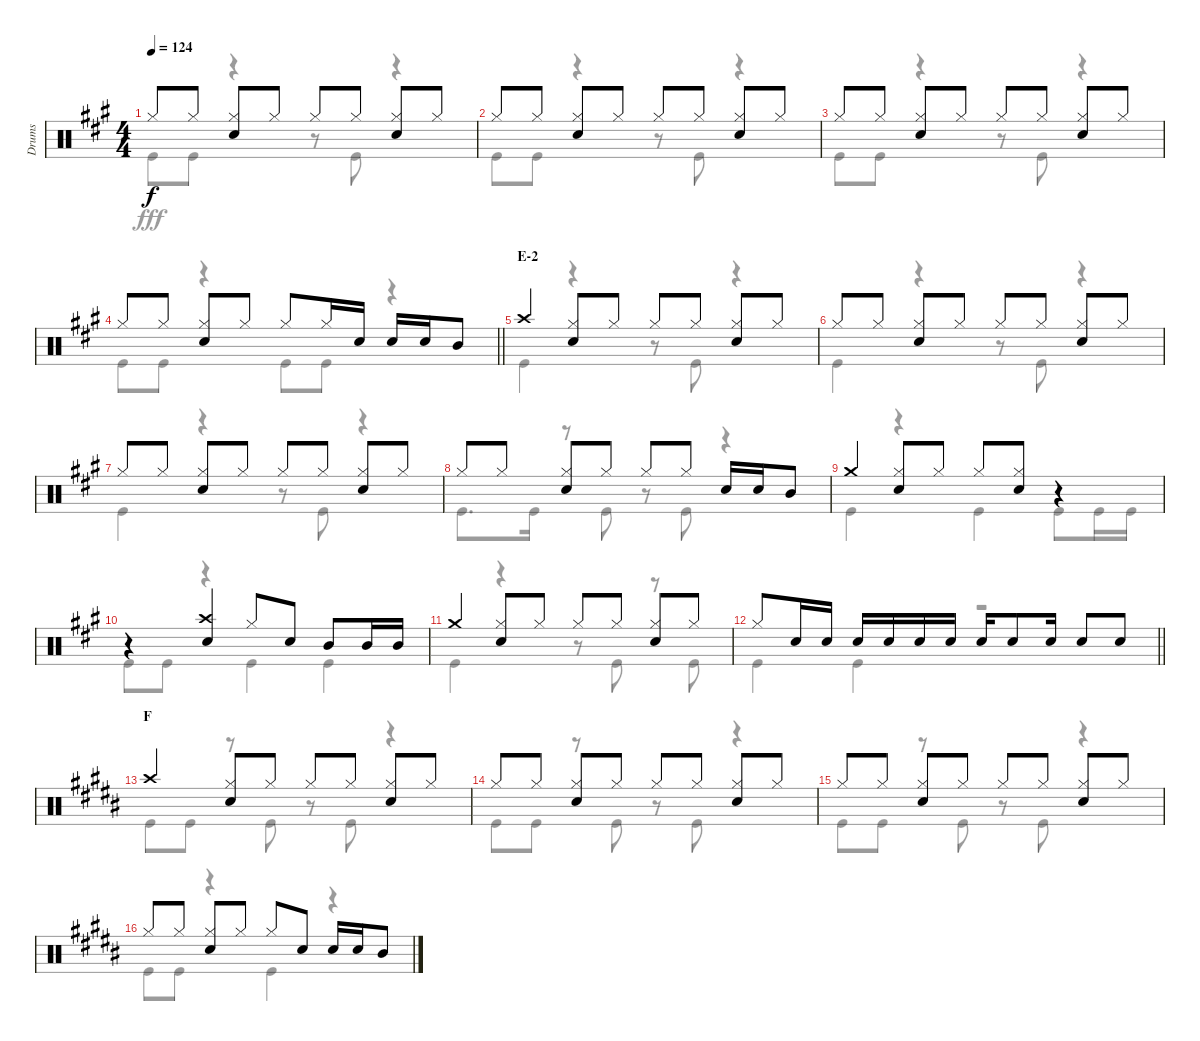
\track ("Drums" "Drums") {instrument percussion}
\staff {score}
\articulation defaults
\voice
\ts (4 4)
\tempo 124
\clef neutral
\ks a "Hi-Hat (closed)".8{dy f} "Hi-Hat (closed)".8
("Hi-Hat (closed)" "Snare (hit) 2").8 "Hi-Hat (closed)".8 "Hi-Hat (closed)".8 "Hi-Hat (closed)".8 ("Hi-Hat (closed)" "Snare (hit) 2").8 "Hi-Hat (closed)".8 |
"Hi-Hat (closed)".8 "Hi-Hat (closed)".8 ("Hi-Hat (closed)" "Snare (hit) 2").8 "Hi-Hat (closed)".8 "Hi-Hat (closed)".8 "Hi-Hat (closed)".8 ("Hi-Hat (closed)" "Snare (hit) 2").8 "Hi-Hat (closed)".8 |
"Hi-Hat (closed)".8 "Hi-Hat (closed)".8 ("Hi-Hat (closed)" "Snare (hit) 2").8 "Hi-Hat (closed)".8 "Hi-Hat (closed)".8 "Hi-Hat (closed)".8 ("Hi-Hat (closed)" "Snare (hit) 2").8 "Hi-Hat (closed)".8 |
\barLineRight lightlight "Hi-Hat (closed)".8 "Hi-Hat (closed)".8
("Hi-Hat (closed)" "Snare (hit) 2").8 "Hi-Hat (closed)".8 "Hi-Hat (closed)".8 "Hi-Hat (closed)".16 "Snare (hit) 2".16 "Snare (hit) 2".16 "Snare (hit) 2".16 "Mid Tom (hit)".8 |
\section ("" "E-2")
"Crash high (hit)".4 ("Hi-Hat (closed)" "Snare (hit) 2").8 "Hi-Hat (closed)".8 "Hi-Hat (closed)".8 "Hi-Hat (closed)".8 ("Hi-Hat (closed)" "Snare (hit) 2").8 "Hi-Hat (closed)".8 |
"Hi-Hat (closed)".8 "Hi-Hat (closed)".8 ("Hi-Hat (closed)" "Snare (hit) 2").8 "Hi-Hat (closed)".8 "Hi-Hat (closed)".8 "Hi-Hat (closed)".8 ("Hi-Hat (closed)" "Snare (hit) 2").8 "Hi-Hat (closed)".8 |
"Hi-Hat (closed)".8 "Hi-Hat (closed)".8 ("Hi-Hat (closed)" "Snare (hit) 2").8 "Hi-Hat (closed)".8 "Hi-Hat (closed)".8 "Hi-Hat (closed)".8 ("Hi-Hat (closed)" "Snare (hit) 2").8 "Hi-Hat (closed)".8 |
"Hi-Hat (closed)".8 "Hi-Hat (closed)".8 ("Hi-Hat (closed)" "Snare (hit) 2").8 "Hi-Hat (closed)".8 "Hi-Hat (closed)".8 "Hi-Hat (closed)".8 "Snare (hit) 2".16 "Snare (hit) 2".16 "Mid Tom (hit)".8 |
"Crash medium (hit)".4 ("Hi-Hat (closed)" "Snare (hit) 2").8 "Hi-Hat (closed)".8 "Hi-Hat (closed)".8 ("Hi-Hat (closed)" "Snare (hit) 2").8 r.4 |
r.4 ("Crash high (hit)" "Snare (hit) 2").4 "Hi-Hat (closed)".8 "Snare (hit) 2".8 "Mid Tom (hit)".8 "Mid Tom (hit)".16 "Mid Tom (hit)".16 |
"Crash medium (hit)".4 ("Hi-Hat (closed)" "Snare (hit) 2").8 "Hi-Hat (closed)".8 "Hi-Hat (closed)".8 "Hi-Hat (closed)".8 ("Hi-Hat (closed)" "Snare (hit) 2").8 "Hi-Hat (closed)".8 |
\barLineRight lightlight "Hi-Hat (closed)".8 "Snare (hit) 2".16 "Snare (hit) 2".16 "Snare (hit) 2".16 "Snare (hit) 2".16 "Snare (hit) 2".16 "Snare (hit) 2".16 "Snare (hit) 2".16 "Snare (hit) 2".8 "Snare (hit) 2".16 "Snare (hit) 2".8 "Snare (hit) 2".8
|
\section ("" "F")
\ks b "Crash high (hit)".4
("Hi-Hat (closed)" "Snare (hit) 2").8 "Hi-Hat (closed)".8 "Hi-Hat (closed)".8 "Hi-Hat (closed)".8 ("Hi-Hat (closed)" "Snare (hit) 2").8 "Hi-Hat (closed)".8 |
"Hi-Hat (closed)".8 "Hi-Hat (closed)".8 ("Hi-Hat (closed)" "Snare (hit) 2").8 "Hi-Hat (closed)".8 "Hi-Hat (closed)".8 "Hi-Hat (closed)".8 ("Hi-Hat (closed)" "Snare (hit) 2").8 "Hi-Hat (closed)".8 |
"Hi-Hat (closed)".8 "Hi-Hat (closed)".8 ("Hi-Hat (closed)" "Snare (hit) 2").8 "Hi-Hat (closed)".8 "Hi-Hat (closed)".8 "Hi-Hat (closed)".8 ("Hi-Hat (closed)" "Snare (hit) 2").8 "Hi-Hat (closed)".8 |
"Hi-Hat (closed)".8 "Hi-Hat (closed)".8 ("Hi-Hat (closed)" "Snare (hit) 2").8 "Hi-Hat (closed)".8 "Hi-Hat (closed)".8 "Snare (hit) 2".8 "Snare (hit) 2".16 "Snare (hit) 2".16 "Mid Tom (hit)".8
\voice
\clef neutral
\ottava regular
\simile none
\ks a "Kick (hit)".8{dy fff} "Kick (hit)".8
r.4 r.8 "Kick (hit)".8 r.4 |
"Kick (hit)".8 "Kick (hit)".8 r.4 r.8 "Kick (hit)".8 r.4 |
"Kick (hit)".8 "Kick (hit)".8 r.4 r.8 "Kick (hit)".8 r.4 |
\barLineRight lightlight "Kick (hit)".8 "Kick (hit)".8
r.4 "Kick (hit)".8 "Kick (hit)".8 r.4 |
"Kick (hit)".4 r.4 r.8 "Kick (hit)".8 r.4 |
"Kick (hit)".4 r.4 r.8 "Kick (hit)".8 r.4 |
"Kick (hit)".4 r.4 r.8 "Kick (hit)".8 r.4 |
"Kick (hit)".8{d} "Kick (hit)".16 r.8 "Kick (hit)".8 r.8 "Kick (hit)".8 r.4 |
"Kick (hit)".4 r.4 "Kick (hit)".4 "Kick (hit)".8 "Kick (hit)".16 "Kick (hit)".16 |
"Kick (hit)".8 "Kick (hit)".8 r.4 "Kick (hit)".4 "Kick (hit)".4 |
"Kick (hit)".4 r.4 r.8 "Kick (hit)".8 r.8 "Kick (hit)".8 |
\barLineRight lightlight "Kick (hit)".4 "Kick (hit)".4
r.2 |
\ks b "Kick (hit)".8 "Kick (hit)".8
r.8 "Kick (hit)".8 r.8 "Kick (hit)".8 r.4 |
"Kick (hit)".8 "Kick (hit)".8 r.8 "Kick (hit)".8 r.8 "Kick (hit)".8 r.4 |
"Kick (hit)".8 "Kick (hit)".8 r.8 "Kick (hit)".8 r.8 "Kick (hit)".8 r.4 |
"Kick (hit)".8 "Kick (hit)".8 r.4 "Kick (hit)".4 r.4
